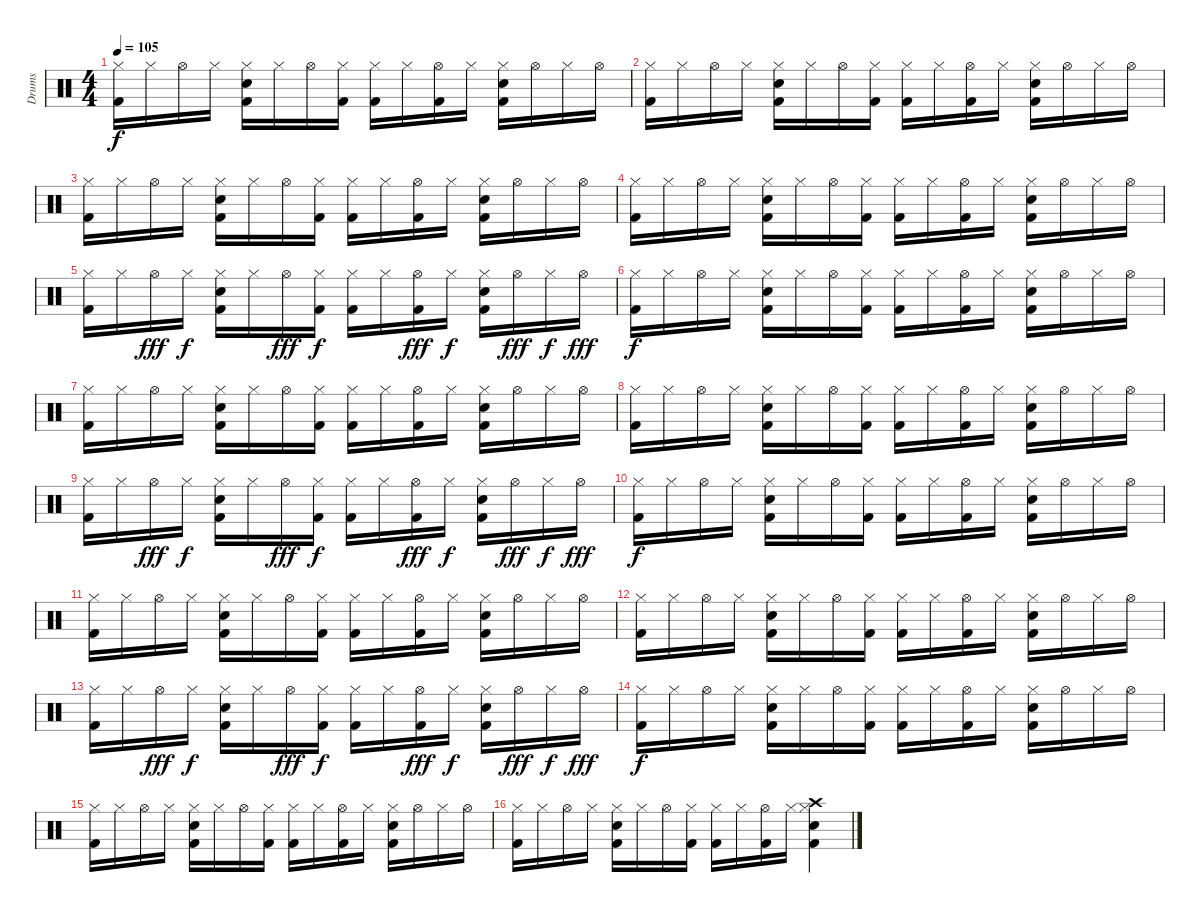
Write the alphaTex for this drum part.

\track ("Drums" "Drums") {instrument percussion}
\staff {score}
\articulation defaults
\ts (4 4)
\tempo 105
\clef neutral
\ks c
("Kick (hit) 2" "Hi-Hat (closed)").16{dy f volume 12} "Hi-Hat (closed)".16 "Hi-Hat (open)".16 "Hi-Hat (closed)".16 ("Kick (hit) 2" "Electric Snare (hit)" "Hi-Hat (closed)").16 "Hi-Hat (closed)".16 "Hi-Hat (open)".16 ("Kick (hit) 2" "Hi-Hat (closed)").16 ("Kick (hit) 2" "Hi-Hat (closed)").16 "Hi-Hat (closed)".16 ("Kick (hit) 2" "Hi-Hat (open)").16 "Hi-Hat (closed)".16 ("Kick (hit) 2" "Electric Snare (hit)" "Hi-Hat (closed)").16 "Hi-Hat (open)".16 "Hi-Hat (closed)".16 "Hi-Hat (open)".16 |
("Kick (hit) 2" "Hi-Hat (closed)").16 "Hi-Hat (closed)".16 "Hi-Hat (open)".16 "Hi-Hat (closed)".16 ("Kick (hit) 2" "Electric Snare (hit)" "Hi-Hat (closed)").16 "Hi-Hat (closed)".16 "Hi-Hat (open)".16 ("Kick (hit) 2" "Hi-Hat (closed)").16 ("Kick (hit) 2" "Hi-Hat (closed)").16 "Hi-Hat (closed)".16 ("Kick (hit) 2" "Hi-Hat (open)").16 "Hi-Hat (closed)".16 ("Kick (hit) 2" "Electric Snare (hit)" "Hi-Hat (closed)").16 "Hi-Hat (open)".16 "Hi-Hat (closed)".16 "Hi-Hat (open)".16 |
("Kick (hit) 2" "Hi-Hat (closed)").16 "Hi-Hat (closed)".16 "Hi-Hat (open)".16 "Hi-Hat (closed)".16 ("Kick (hit) 2" "Electric Snare (hit)" "Hi-Hat (closed)").16 "Hi-Hat (closed)".16 "Hi-Hat (open)".16 ("Kick (hit) 2" "Hi-Hat (closed)").16 ("Kick (hit) 2" "Hi-Hat (closed)").16 "Hi-Hat (closed)".16 ("Kick (hit) 2" "Hi-Hat (open)").16 "Hi-Hat (closed)".16 ("Kick (hit) 2" "Electric Snare (hit)" "Hi-Hat (closed)").16 "Hi-Hat (open)".16 "Hi-Hat (closed)".16 "Hi-Hat (open)".16 |
("Kick (hit) 2" "Hi-Hat (closed)").16 "Hi-Hat (closed)".16 "Hi-Hat (open)".16 "Hi-Hat (closed)".16 ("Kick (hit) 2" "Electric Snare (hit)" "Hi-Hat (closed)").16 "Hi-Hat (closed)".16 "Hi-Hat (open)".16 ("Kick (hit) 2" "Hi-Hat (closed)").16 ("Kick (hit) 2" "Hi-Hat (closed)").16 "Hi-Hat (closed)".16 ("Kick (hit) 2" "Hi-Hat (open)").16 "Hi-Hat (closed)".16 ("Kick (hit) 2" "Electric Snare (hit)" "Hi-Hat (closed)").16 "Hi-Hat (open)".16 "Hi-Hat (closed)".16 "Hi-Hat (open)".16 |
("Kick (hit) 2" "Hi-Hat (closed)").16 "Hi-Hat (closed)".16 "Hi-Hat (open)".16{dy fff} "Hi-Hat (closed)".16{dy f} ("Kick (hit) 2" "Electric Snare (hit)" "Hi-Hat (closed)").16 "Hi-Hat (closed)".16 "Hi-Hat (open)".16{dy fff} ("Kick (hit) 2" "Hi-Hat (closed)").16{dy f} ("Kick (hit) 2" "Hi-Hat (closed)").16 "Hi-Hat (closed)".16 ("Kick (hit) 2" "Hi-Hat (open)").16{dy fff} "Hi-Hat (closed)".16{dy f} ("Kick (hit) 2" "Electric Snare (hit)" "Hi-Hat (closed)").16 "Hi-Hat (open)".16{dy fff} "Hi-Hat (closed)".16{dy f} "Hi-Hat (open)".16{dy fff} |
("Kick (hit) 2" "Hi-Hat (closed)").16{dy f} "Hi-Hat (closed)".16 "Hi-Hat (open)".16 "Hi-Hat (closed)".16 ("Kick (hit) 2" "Electric Snare (hit)" "Hi-Hat (closed)").16 "Hi-Hat (closed)".16 "Hi-Hat (open)".16 ("Kick (hit) 2" "Hi-Hat (closed)").16 ("Kick (hit) 2" "Hi-Hat (closed)").16 "Hi-Hat (closed)".16 ("Kick (hit) 2" "Hi-Hat (open)").16 "Hi-Hat (closed)".16 ("Kick (hit) 2" "Electric Snare (hit)" "Hi-Hat (closed)").16 "Hi-Hat (open)".16 "Hi-Hat (closed)".16 "Hi-Hat (open)".16 |
("Kick (hit) 2" "Hi-Hat (closed)").16 "Hi-Hat (closed)".16 "Hi-Hat (open)".16 "Hi-Hat (closed)".16 ("Kick (hit) 2" "Electric Snare (hit)" "Hi-Hat (closed)").16 "Hi-Hat (closed)".16 "Hi-Hat (open)".16 ("Kick (hit) 2" "Hi-Hat (closed)").16 ("Kick (hit) 2" "Hi-Hat (closed)").16 "Hi-Hat (closed)".16 ("Kick (hit) 2" "Hi-Hat (open)").16 "Hi-Hat (closed)".16 ("Kick (hit) 2" "Electric Snare (hit)" "Hi-Hat (closed)").16 "Hi-Hat (open)".16 "Hi-Hat (closed)".16 "Hi-Hat (open)".16 |
("Kick (hit) 2" "Hi-Hat (closed)").16 "Hi-Hat (closed)".16 "Hi-Hat (open)".16 "Hi-Hat (closed)".16 ("Kick (hit) 2" "Electric Snare (hit)" "Hi-Hat (closed)").16 "Hi-Hat (closed)".16 "Hi-Hat (open)".16 ("Kick (hit) 2" "Hi-Hat (closed)").16 ("Kick (hit) 2" "Hi-Hat (closed)").16 "Hi-Hat (closed)".16 ("Kick (hit) 2" "Hi-Hat (open)").16 "Hi-Hat (closed)".16 ("Kick (hit) 2" "Electric Snare (hit)" "Hi-Hat (closed)").16 "Hi-Hat (open)".16 "Hi-Hat (closed)".16 "Hi-Hat (open)".16 |
("Kick (hit) 2" "Hi-Hat (closed)").16 "Hi-Hat (closed)".16 "Hi-Hat (open)".16{dy fff} "Hi-Hat (closed)".16{dy f} ("Kick (hit) 2" "Electric Snare (hit)" "Hi-Hat (closed)").16 "Hi-Hat (closed)".16 "Hi-Hat (open)".16{dy fff} ("Kick (hit) 2" "Hi-Hat (closed)").16{dy f} ("Kick (hit) 2" "Hi-Hat (closed)").16 "Hi-Hat (closed)".16 ("Kick (hit) 2" "Hi-Hat (open)").16{dy fff} "Hi-Hat (closed)".16{dy f} ("Kick (hit) 2" "Electric Snare (hit)" "Hi-Hat (closed)").16 "Hi-Hat (open)".16{dy fff} "Hi-Hat (closed)".16{dy f} "Hi-Hat (open)".16{dy fff} |
("Kick (hit) 2" "Hi-Hat (closed)").16{dy f} "Hi-Hat (closed)".16 "Hi-Hat (open)".16 "Hi-Hat (closed)".16 ("Kick (hit) 2" "Electric Snare (hit)" "Hi-Hat (closed)").16 "Hi-Hat (closed)".16 "Hi-Hat (open)".16 ("Kick (hit) 2" "Hi-Hat (closed)").16 ("Kick (hit) 2" "Hi-Hat (closed)").16 "Hi-Hat (closed)".16 ("Kick (hit) 2" "Hi-Hat (open)").16 "Hi-Hat (closed)".16 ("Kick (hit) 2" "Electric Snare (hit)" "Hi-Hat (closed)").16 "Hi-Hat (open)".16 "Hi-Hat (closed)".16 "Hi-Hat (open)".16 |
("Kick (hit) 2" "Hi-Hat (closed)").16 "Hi-Hat (closed)".16 "Hi-Hat (open)".16 "Hi-Hat (closed)".16 ("Kick (hit) 2" "Electric Snare (hit)" "Hi-Hat (closed)").16 "Hi-Hat (closed)".16 "Hi-Hat (open)".16 ("Kick (hit) 2" "Hi-Hat (closed)").16 ("Kick (hit) 2" "Hi-Hat (closed)").16 "Hi-Hat (closed)".16 ("Kick (hit) 2" "Hi-Hat (open)").16 "Hi-Hat (closed)".16 ("Kick (hit) 2" "Electric Snare (hit)" "Hi-Hat (closed)").16 "Hi-Hat (open)".16 "Hi-Hat (closed)".16 "Hi-Hat (open)".16 |
("Kick (hit) 2" "Hi-Hat (closed)").16 "Hi-Hat (closed)".16 "Hi-Hat (open)".16 "Hi-Hat (closed)".16 ("Kick (hit) 2" "Electric Snare (hit)" "Hi-Hat (closed)").16 "Hi-Hat (closed)".16 "Hi-Hat (open)".16 ("Kick (hit) 2" "Hi-Hat (closed)").16 ("Kick (hit) 2" "Hi-Hat (closed)").16 "Hi-Hat (closed)".16 ("Kick (hit) 2" "Hi-Hat (open)").16 "Hi-Hat (closed)".16 ("Kick (hit) 2" "Electric Snare (hit)" "Hi-Hat (closed)").16 "Hi-Hat (open)".16 "Hi-Hat (closed)".16 "Hi-Hat (open)".16 |
("Kick (hit) 2" "Hi-Hat (closed)").16 "Hi-Hat (closed)".16 "Hi-Hat (open)".16{dy fff} "Hi-Hat (closed)".16{dy f} ("Kick (hit) 2" "Electric Snare (hit)" "Hi-Hat (closed)").16 "Hi-Hat (closed)".16 "Hi-Hat (open)".16{dy fff} ("Kick (hit) 2" "Hi-Hat (closed)").16{dy f} ("Kick (hit) 2" "Hi-Hat (closed)").16 "Hi-Hat (closed)".16 ("Kick (hit) 2" "Hi-Hat (open)").16{dy fff} "Hi-Hat (closed)".16{dy f} ("Kick (hit) 2" "Electric Snare (hit)" "Hi-Hat (closed)").16 "Hi-Hat (open)".16{dy fff} "Hi-Hat (closed)".16{dy f} "Hi-Hat (open)".16{dy fff} |
("Kick (hit) 2" "Hi-Hat (closed)").16{dy f} "Hi-Hat (closed)".16 "Hi-Hat (open)".16 "Hi-Hat (closed)".16 ("Kick (hit) 2" "Electric Snare (hit)" "Hi-Hat (closed)").16 "Hi-Hat (closed)".16 "Hi-Hat (open)".16 ("Kick (hit) 2" "Hi-Hat (closed)").16 ("Kick (hit) 2" "Hi-Hat (closed)").16 "Hi-Hat (closed)".16 ("Kick (hit) 2" "Hi-Hat (open)").16 "Hi-Hat (closed)".16 ("Kick (hit) 2" "Electric Snare (hit)" "Hi-Hat (closed)").16 "Hi-Hat (open)".16 "Hi-Hat (closed)".16 "Hi-Hat (open)".16 |
("Kick (hit) 2" "Hi-Hat (closed)").16 "Hi-Hat (closed)".16 "Hi-Hat (open)".16 "Hi-Hat (closed)".16 ("Kick (hit) 2" "Electric Snare (hit)" "Hi-Hat (closed)").16 "Hi-Hat (closed)".16 "Hi-Hat (open)".16 ("Kick (hit) 2" "Hi-Hat (closed)").16 ("Kick (hit) 2" "Hi-Hat (closed)").16 "Hi-Hat (closed)".16 ("Kick (hit) 2" "Hi-Hat (open)").16 "Hi-Hat (closed)".16 ("Kick (hit) 2" "Electric Snare (hit)" "Hi-Hat (closed)").16 "Hi-Hat (open)".16 "Hi-Hat (closed)".16 "Hi-Hat (open)".16 |
("Kick (hit) 2" "Hi-Hat (closed)").16 "Hi-Hat (closed)".16 "Hi-Hat (open)".16 "Hi-Hat (closed)".16 ("Kick (hit) 2" "Electric Snare (hit)" "Hi-Hat (closed)").16 "Hi-Hat (closed)".16 "Hi-Hat (open)".16 ("Kick (hit) 2" "Hi-Hat (closed)").16 ("Kick (hit) 2" "Hi-Hat (closed)").16 "Hi-Hat (closed)".16 ("Kick (hit) 2" "Hi-Hat (open)").16 "Hi-Hat (closed)".16 ("Kick (hit) 2" "Electric Snare (hit)" "Hi-Hat (closed)" "Crash high (hit)").4
